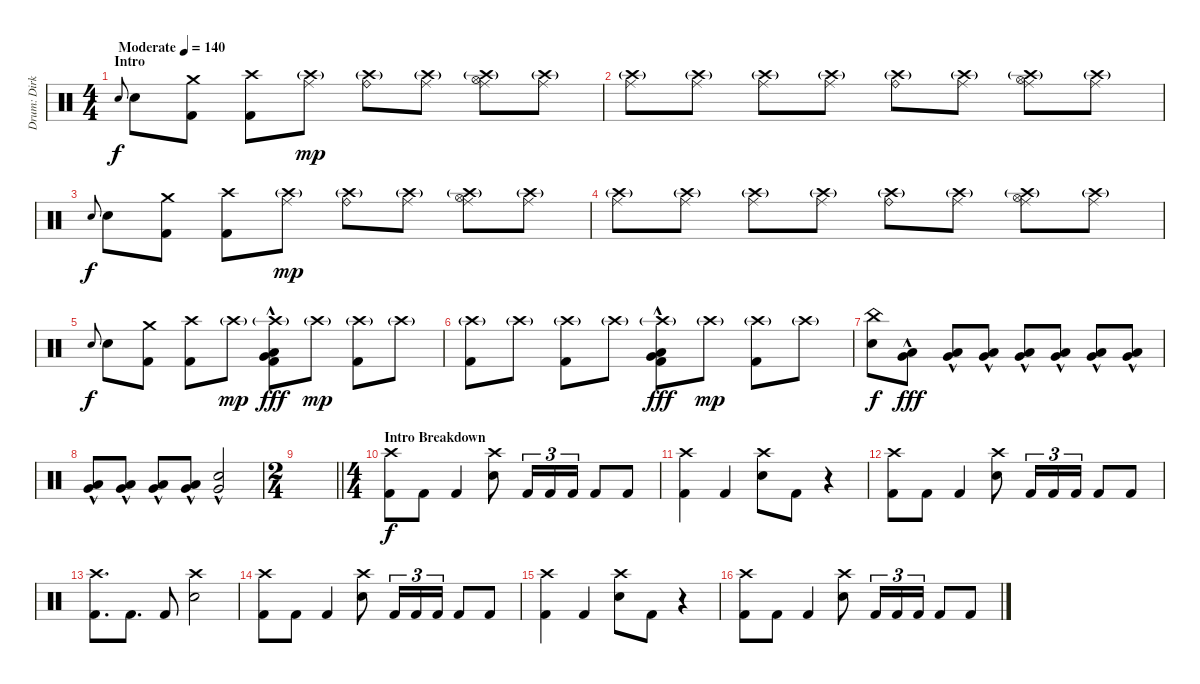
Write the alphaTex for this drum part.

\track ("Drum: Dirk" "Drum: Dirk") {instrument percussion}
\staff {score}
\articulation defaults
\ts (4 4)
\section ("" "Intro")
\tempo (140 "Moderate")
\clef neutral
\ks c "Electric Snare (hit)".8{gr onbeat dy f} "Electric Snare (hit)".8
("Crash medium (hit)" "Kick (hit) 2").8 ("Crash high (hit)" "Kick (hit) 2").8 ("Crash high (hit)"{g} "Ride (middle)").8{dy mp} ("Crash high (hit)"{g} "Ride (bell)").8 ("Crash high (hit)"{g} "Ride (middle)").8 ("Crash high (hit)"{g} "Ride (middle)" "Hi-Hat (open)").8 ("Crash high (hit)"{g} "Ride (middle)").8 |
("Crash high (hit)"{g} "Ride (middle)").8 ("Crash high (hit)"{g} "Ride (middle)").8 ("Crash high (hit)"{g} "Ride (middle)").8 ("Crash high (hit)"{g} "Ride (middle)").8 ("Crash high (hit)"{g} "Ride (bell)").8 ("Crash high (hit)"{g} "Ride (middle)").8 ("Crash high (hit)"{g} "Ride (middle)" "Hi-Hat (open)").8 ("Crash high (hit)"{g} "Ride (middle)").8 |
"Electric Snare (hit)".8{gr onbeat dy f} "Electric Snare (hit)".8 ("Crash medium (hit)" "Kick (hit) 2").8 ("Crash high (hit)" "Kick (hit) 2").8 ("Crash high (hit)"{g} "Ride (middle)").8{dy mp} ("Crash high (hit)"{g} "Ride (bell)").8 ("Crash high (hit)"{g} "Ride (middle)").8 ("Crash high (hit)"{g} "Ride (middle)" "Hi-Hat (open)").8 ("Crash high (hit)"{g} "Ride (middle)").8 |
("Crash high (hit)"{g} "Ride (middle)").8 ("Crash high (hit)"{g} "Ride (middle)").8 ("Crash high (hit)"{g} "Ride (middle)").8 ("Crash high (hit)"{g} "Ride (middle)").8 ("Crash high (hit)"{g} "Ride (bell)").8 ("Crash high (hit)"{g} "Ride (middle)").8 ("Crash high (hit)"{g} "Ride (middle)" "Hi-Hat (open)").8 ("Crash high (hit)"{g} "Ride (middle)").8 |
"Electric Snare (hit)".8{gr onbeat dy f} "Electric Snare (hit)".8 ("Crash medium (hit)" "Kick (hit) 2").8 ("Crash high (hit)" "Kick (hit) 2").8 "Crash high (hit)"{g}.8{dy mp} ("Crash high (hit)"{g} "Low Tom (hit)"{hac} "Very Low Tom (hit)"{hac} "Kick (hit) 2").8{dy fff} "Crash high (hit)"{g}.8{dy mp} ("Crash high (hit)"{g} "Kick (hit) 2").8 "Crash high (hit)"{g}.8 |
("Crash high (hit)"{g} "Kick (hit) 2").8 "Crash high (hit)"{g}.8 ("Crash high (hit)"{g} "Kick (hit) 2").8 "Crash high (hit)"{g}.8 ("Crash high (hit)"{g} "Low Tom (hit)"{hac} "Very Low Tom (hit)"{hac} "Kick (hit) 2").8{dy fff} "Crash high (hit)"{g}.8{dy mp} ("Crash high (hit)"{g} "Kick (hit) 2").8 "Crash high (hit)"{g}.8 |
("China (hit)" "Electric Snare (hit)").8{dy f} ("Low Tom (hit)" "Very Low Tom (hit)"{hac}).8{dy fff} ("Low Tom (hit)" "Very Low Tom (hit)"{hac}).8 ("Low Tom (hit)" "Very Low Tom (hit)"{hac}).8 ("Low Tom (hit)" "Very Low Tom (hit)"{hac}).8 ("Low Tom (hit)" "Very Low Tom (hit)"{hac}).8 ("Low Tom (hit)" "Very Low Tom (hit)"{hac}).8 ("Low Tom (hit)" "Very Low Tom (hit)"{hac}).8 |
("Low Tom (hit)" "Very Low Tom (hit)"{hac}).8 ("Low Tom (hit)" "Very Low Tom (hit)"{hac}).8 ("Low Tom (hit)" "Very Low Tom (hit)"{hac}).8 ("Low Tom (hit)" "Very Low Tom (hit)"{hac}).8 ("Electric Snare (hit)"{hac} "Very Low Tom (hit)"{hac}).2 |
\ts (2 4)
\barLineRight lightlight
|
\ts (4 4)
\section ("" "Intro Breakdown")
("Crash high (hit)" "Kick (hit) 2").8{dy f} "Kick (hit) 2".8 "Kick (hit) 2".4 ("Crash high (hit)" "Electric Snare (hit)").8 "Kick (hit) 2".16{tu (3 2)} "Kick (hit) 2".16{tu (3 2)} "Kick (hit) 2".16{tu (3 2)} "Kick (hit) 2".8 "Kick (hit) 2".8 |
("Crash high (hit)" "Kick (hit) 2").4 "Kick (hit) 2".4 ("Crash high (hit)" "Electric Snare (hit)").8 "Kick (hit) 2".8 r.4 |
("Crash high (hit)" "Kick (hit) 2").8 "Kick (hit) 2".8 "Kick (hit) 2".4 ("Crash high (hit)" "Electric Snare (hit)").8 "Kick (hit) 2".16{tu (3 2)} "Kick (hit) 2".16{tu (3 2)} "Kick (hit) 2".16{tu (3 2)} "Kick (hit) 2".8 "Kick (hit) 2".8 |
("Crash high (hit)" "Kick (hit) 2").8{d} "Kick (hit) 2".8{d} "Kick (hit) 2".8 ("Crash high (hit)" "Electric Snare (hit)").2 |
("Crash high (hit)" "Kick (hit) 2").8 "Kick (hit) 2".8 "Kick (hit) 2".4 ("Crash high (hit)" "Electric Snare (hit)").8 "Kick (hit) 2".16{tu (3 2)} "Kick (hit) 2".16{tu (3 2)} "Kick (hit) 2".16{tu (3 2)} "Kick (hit) 2".8 "Kick (hit) 2".8 |
("Crash high (hit)" "Kick (hit) 2").4 "Kick (hit) 2".4 ("Crash high (hit)" "Electric Snare (hit)").8 "Kick (hit) 2".8 r.4 |
("Crash high (hit)" "Kick (hit) 2").8 "Kick (hit) 2".8 "Kick (hit) 2".4 ("Crash high (hit)" "Electric Snare (hit)").8 "Kick (hit) 2".16{tu (3 2)} "Kick (hit) 2".16{tu (3 2)} "Kick (hit) 2".16{tu (3 2)} "Kick (hit) 2".8 "Kick (hit) 2".8
